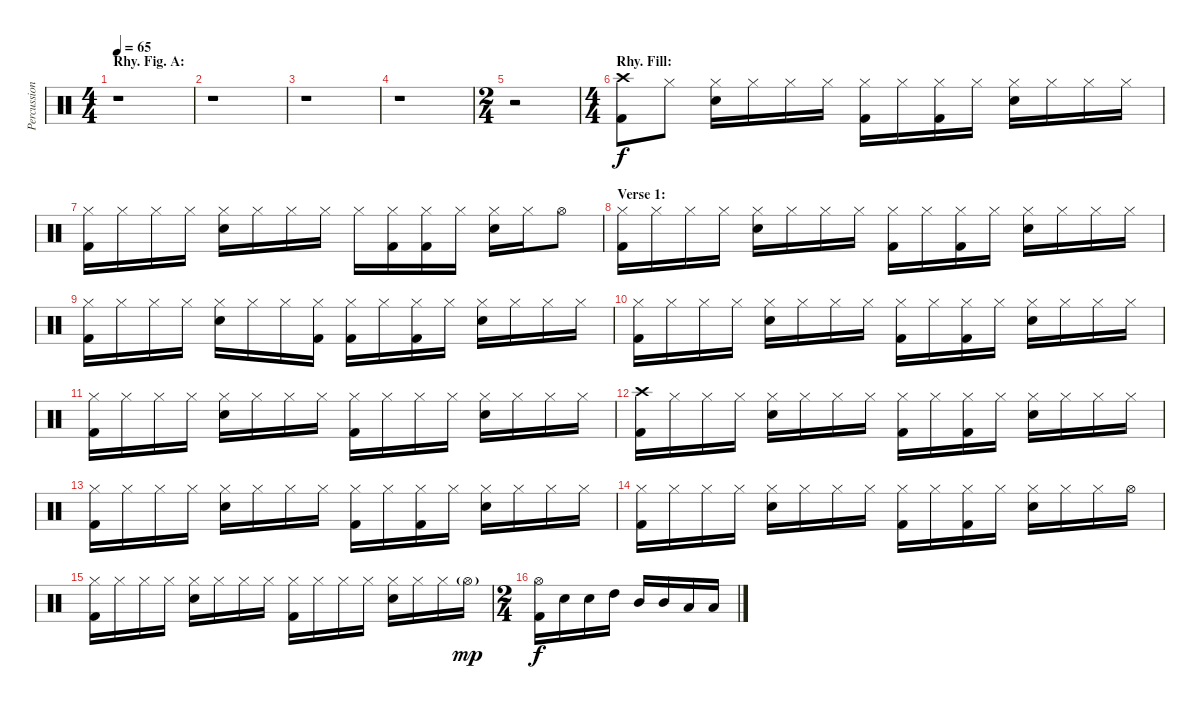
\track ("Percussion" "Percussion") {instrument percussion}
\staff {score}
\articulation defaults
\ts (4 4)
\section ("" "Rhy. Fig. A:")
\tempo 65
\clef neutral
\ks c
r.1{dy f} |
r.1 |
r.1 |
r.1 |
\ts (2 4)
r.2 |
\ts (4 4)
\section ("" "Rhy. Fill:")
("Crash high (hit)" "Kick (hit) 2").8 "Hi-Hat (closed)".8 ("Hi-Hat (closed)" "Electric Snare (hit)").16 "Hi-Hat (closed)".16 "Hi-Hat (closed)".16 "Hi-Hat (closed)".16 ("Hi-Hat (closed)" "Kick (hit) 2").16 "Hi-Hat (closed)".16 ("Hi-Hat (closed)" "Kick (hit) 2").16 "Hi-Hat (closed)".16 ("Hi-Hat (closed)" "Electric Snare (hit)").16 "Hi-Hat (closed)".16 "Hi-Hat (closed)".16 "Hi-Hat (closed)".16 |
("Hi-Hat (closed)" "Kick (hit) 2").16 "Hi-Hat (closed)".16 "Hi-Hat (closed)".16 "Hi-Hat (closed)".16 ("Hi-Hat (closed)" "Electric Snare (hit)").16 "Hi-Hat (closed)".16 "Hi-Hat (closed)".16 "Hi-Hat (closed)".16 "Hi-Hat (closed)".16 ("Hi-Hat (closed)" "Kick (hit) 2").16 ("Hi-Hat (closed)" "Kick (hit) 2").16 "Hi-Hat (closed)".16 ("Hi-Hat (closed)" "Electric Snare (hit)").16 "Hi-Hat (closed)".16 "Hi-Hat (open)".8 |
\section ("" "Verse 1:")
("Hi-Hat (closed)" "Kick (hit) 2").16 "Hi-Hat (closed)".16 "Hi-Hat (closed)".16 "Hi-Hat (closed)".16 ("Hi-Hat (closed)" "Electric Snare (hit)").16 "Hi-Hat (closed)".16 "Hi-Hat (closed)".16 "Hi-Hat (closed)".16 ("Hi-Hat (closed)" "Kick (hit) 2").16 "Hi-Hat (closed)".16 ("Hi-Hat (closed)" "Kick (hit) 2").16 "Hi-Hat (closed)".16 ("Hi-Hat (closed)" "Electric Snare (hit)").16 "Hi-Hat (closed)".16 "Hi-Hat (closed)".16 "Hi-Hat (closed)".16 |
("Hi-Hat (closed)" "Kick (hit) 2").16 "Hi-Hat (closed)".16 "Hi-Hat (closed)".16 "Hi-Hat (closed)".16 ("Hi-Hat (closed)" "Electric Snare (hit)").16 "Hi-Hat (closed)".16 "Hi-Hat (closed)".16 ("Hi-Hat (closed)" "Kick (hit) 2").16 ("Hi-Hat (closed)" "Kick (hit) 2").16 "Hi-Hat (closed)".16 ("Hi-Hat (closed)" "Kick (hit) 2").16 "Hi-Hat (closed)".16 ("Hi-Hat (closed)" "Electric Snare (hit)").16 "Hi-Hat (closed)".16 "Hi-Hat (closed)".16 "Hi-Hat (closed)".16 |
("Hi-Hat (closed)" "Kick (hit) 2").16 "Hi-Hat (closed)".16 "Hi-Hat (closed)".16 "Hi-Hat (closed)".16 ("Hi-Hat (closed)" "Electric Snare (hit)").16 "Hi-Hat (closed)".16 "Hi-Hat (closed)".16 "Hi-Hat (closed)".16 ("Hi-Hat (closed)" "Kick (hit) 2").16 "Hi-Hat (closed)".16 ("Hi-Hat (closed)" "Kick (hit) 2").16 "Hi-Hat (closed)".16 ("Hi-Hat (closed)" "Electric Snare (hit)").16 "Hi-Hat (closed)".16 "Hi-Hat (closed)".16 "Hi-Hat (closed)".16 |
("Hi-Hat (closed)" "Kick (hit) 2").16 "Hi-Hat (closed)".16 "Hi-Hat (closed)".16 "Hi-Hat (closed)".16 ("Hi-Hat (closed)" "Electric Snare (hit)").16 "Hi-Hat (closed)".16 "Hi-Hat (closed)".16 "Hi-Hat (closed)".16 ("Hi-Hat (closed)" "Kick (hit) 2").16 "Hi-Hat (closed)".16 "Hi-Hat (closed)".16 "Hi-Hat (closed)".16 ("Hi-Hat (closed)" "Electric Snare (hit)").16 "Hi-Hat (closed)".16 "Hi-Hat (closed)".16 "Hi-Hat (closed)".16 |
("Crash high (hit)" "Kick (hit) 2").16 "Hi-Hat (closed)".16 "Hi-Hat (closed)".16 "Hi-Hat (closed)".16 ("Hi-Hat (closed)" "Electric Snare (hit)").16 "Hi-Hat (closed)".16 "Hi-Hat (closed)".16 "Hi-Hat (closed)".16 ("Hi-Hat (closed)" "Kick (hit) 2").16 "Hi-Hat (closed)".16 ("Hi-Hat (closed)" "Kick (hit) 2").16 "Hi-Hat (closed)".16 ("Hi-Hat (closed)" "Electric Snare (hit)").16 "Hi-Hat (closed)".16 "Hi-Hat (closed)".16 "Hi-Hat (closed)".16 |
("Hi-Hat (closed)" "Kick (hit) 2").16 "Hi-Hat (closed)".16 "Hi-Hat (closed)".16 "Hi-Hat (closed)".16 ("Hi-Hat (closed)" "Electric Snare (hit)").16 "Hi-Hat (closed)".16 "Hi-Hat (closed)".16 "Hi-Hat (closed)".16 ("Hi-Hat (closed)" "Kick (hit) 2").16 "Hi-Hat (closed)".16 ("Hi-Hat (closed)" "Kick (hit) 2").16 "Hi-Hat (closed)".16 ("Hi-Hat (closed)" "Electric Snare (hit)").16 "Hi-Hat (closed)".16 "Hi-Hat (closed)".16 "Hi-Hat (closed)".16 |
("Hi-Hat (closed)" "Kick (hit) 2").16 "Hi-Hat (closed)".16 "Hi-Hat (closed)".16 "Hi-Hat (closed)".16 ("Hi-Hat (closed)" "Electric Snare (hit)").16 "Hi-Hat (closed)".16 "Hi-Hat (closed)".16 "Hi-Hat (closed)".16 ("Hi-Hat (closed)" "Kick (hit) 2").16 "Hi-Hat (closed)".16 ("Hi-Hat (closed)" "Kick (hit) 2").16 "Hi-Hat (closed)".16 ("Hi-Hat (closed)" "Electric Snare (hit)").16 "Hi-Hat (closed)".16 "Hi-Hat (closed)".16 "Hi-Hat (open)".16 |
("Hi-Hat (closed)" "Kick (hit) 2").16 "Hi-Hat (closed)".16 "Hi-Hat (closed)".16 "Hi-Hat (closed)".16 ("Hi-Hat (closed)" "Electric Snare (hit)").16 "Hi-Hat (closed)".16 "Hi-Hat (closed)".16 "Hi-Hat (closed)".16 ("Hi-Hat (closed)" "Kick (hit) 2").16 "Hi-Hat (closed)".16 "Hi-Hat (closed)".16 "Hi-Hat (closed)".16 ("Hi-Hat (closed)" "Electric Snare (hit)").16 "Hi-Hat (closed)".16 "Hi-Hat (closed)".16 "Hi-Hat (open)"{g}.16{dy mp} |
\ts (2 4)
("Hi-Hat (open)" "Kick (hit) 2").16{dy f} "Electric Snare (hit)".16 "Electric Snare (hit)".16 "High Tom (hit)".16 "Mid Tom (hit)".16 "Mid Tom (hit)".16 "Low Tom (hit)".16 "Low Tom (hit)".16
